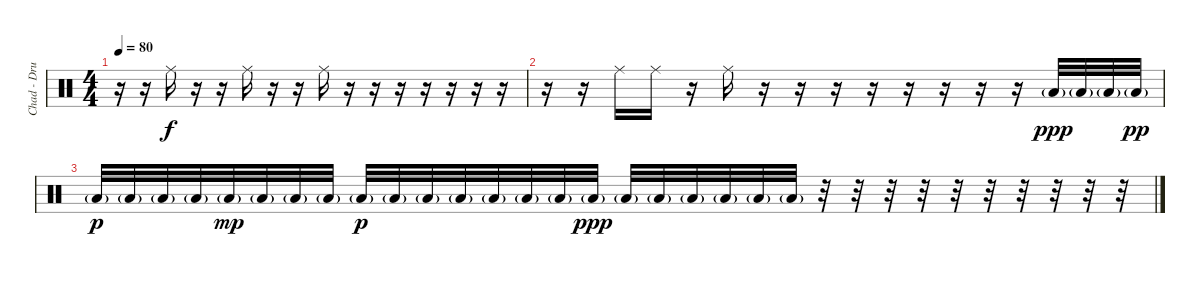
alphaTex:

\track ("Chad - Drums" "Chad - Dru") {instrument percussion}
\staff {score}
\articulation defaults
\ts (4 4)
\tempo 80
\clef neutral
\ks c
r.16{dy f} r.16 "Ride (middle)".16 r.16 r.16 "Ride (middle)".16 r.16 r.16 "Ride (middle)".16 r.16 r.16 r.16 r.16 r.16 r.16 r.16 |
r.16 r.16 "Ride (middle)".16 "Ride (middle)".16 r.16 "Ride (middle)".16 r.16 r.16 r.16 r.16 r.16 r.16 r.16 r.16 "Low Tom (hit)"{g}.32{dy ppp} "Low Tom (hit)"{g}.32 "Low Tom (hit)"{g}.32 "Low Tom (hit)"{g}.32{dy pp} |
"Low Tom (hit)"{g}.32{dy p} "Low Tom (hit)"{g}.32 "Low Tom (hit)"{g}.32 "Low Tom (hit)"{g}.32 "Low Tom (hit)"{g}.32{dy mp} "Low Tom (hit)"{g}.32 "Low Tom (hit)"{g}.32 "Low Tom (hit)"{g}.32 "Low Tom (hit)"{g}.32{dy p} "Low Tom (hit)"{g}.32 "Low Tom (hit)"{g}.32 "Low Tom (hit)"{g}.32 "Low Tom (hit)"{g}.32 "Low Tom (hit)"{g}.32 "Low Tom (hit)"{g}.32 "Low Tom (hit)"{g}.32{dy ppp} "Low Tom (hit)"{g}.32 "Low Tom (hit)"{g}.32 "Low Tom (hit)"{g}.32 "Low Tom (hit)"{g}.32 "Low Tom (hit)"{g}.32 "Low Tom (hit)"{g}.32 r.32 r.32 r.32 r.32 r.32 r.32 r.32 r.32 r.32 r.32
